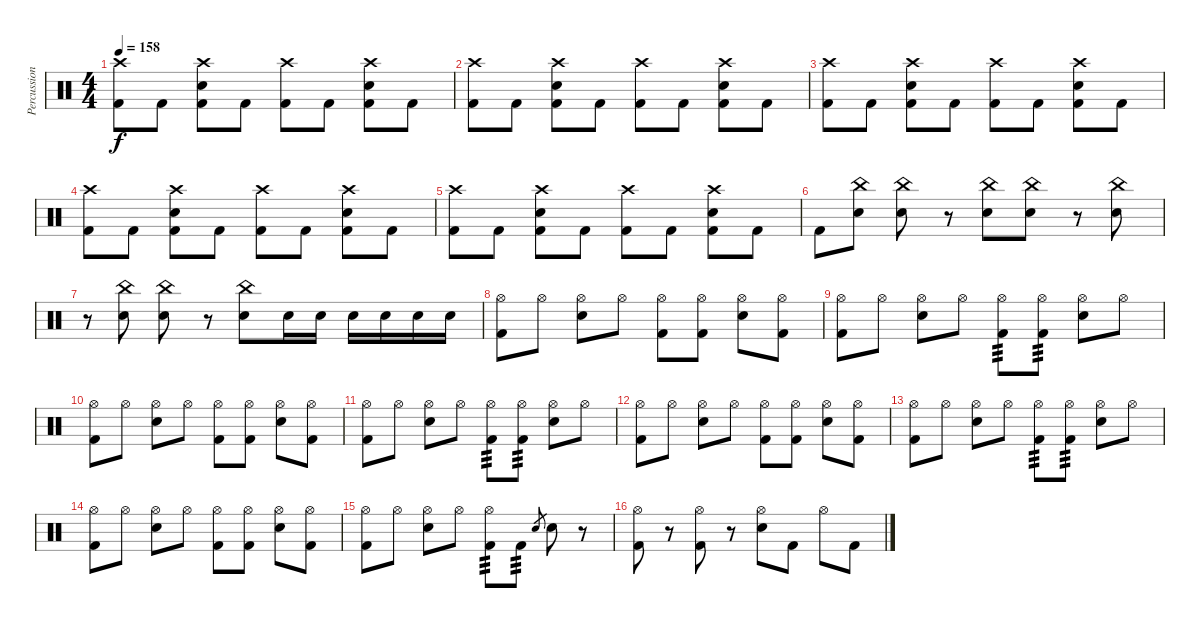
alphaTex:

\track ("Percussion" "Percussion") {instrument percussion}
\staff {score}
\articulation defaults
\ts (4 4)
\tempo 158
\clef neutral
\ks c
("Crash high (hit)" "Kick (hit) 2").8{dy f} "Kick (hit) 2".8 ("Crash high (hit)" "Electric Snare (hit)" "Kick (hit) 2").8 "Kick (hit) 2".8 ("Crash high (hit)" "Kick (hit) 2").8 "Kick (hit) 2".8 ("Crash high (hit)" "Electric Snare (hit)" "Kick (hit) 2").8 "Kick (hit) 2".8 |
("Crash high (hit)" "Kick (hit) 2").8 "Kick (hit) 2".8 ("Crash high (hit)" "Electric Snare (hit)" "Kick (hit) 2").8 "Kick (hit) 2".8 ("Crash high (hit)" "Kick (hit) 2").8 "Kick (hit) 2".8 ("Crash high (hit)" "Electric Snare (hit)" "Kick (hit) 2").8 "Kick (hit) 2".8 |
("Crash high (hit)" "Kick (hit) 2").8 "Kick (hit) 2".8 ("Crash high (hit)" "Electric Snare (hit)" "Kick (hit) 2").8 "Kick (hit) 2".8 ("Crash high (hit)" "Kick (hit) 2").8 "Kick (hit) 2".8 ("Crash high (hit)" "Electric Snare (hit)" "Kick (hit) 2").8 "Kick (hit) 2".8 |
("Crash high (hit)" "Kick (hit) 2").8 "Kick (hit) 2".8 ("Crash high (hit)" "Electric Snare (hit)" "Kick (hit) 2").8 "Kick (hit) 2".8 ("Crash high (hit)" "Kick (hit) 2").8 "Kick (hit) 2".8 ("Crash high (hit)" "Electric Snare (hit)" "Kick (hit) 2").8 "Kick (hit) 2".8 |
("Crash high (hit)" "Kick (hit) 2").8 "Kick (hit) 2".8 ("Crash high (hit)" "Electric Snare (hit)" "Kick (hit) 2").8 "Kick (hit) 2".8 ("Crash high (hit)" "Kick (hit) 2").8 "Kick (hit) 2".8 ("Crash high (hit)" "Electric Snare (hit)" "Kick (hit) 2").8 "Kick (hit) 2".8 |
"Kick (hit) 2".8 ("China (hit)" "Electric Snare (hit)").8 ("China (hit)" "Electric Snare (hit)").8 r.8 ("China (hit)" "Electric Snare (hit)").8 ("China (hit)" "Electric Snare (hit)").8 r.8 ("China (hit)" "Electric Snare (hit)").8 |
r.8 ("China (hit)" "Electric Snare (hit)").8 ("China (hit)" "Electric Snare (hit)").8 r.8 ("China (hit)" "Electric Snare (hit)").8 "Electric Snare (hit)".16 "Electric Snare (hit)".16 "Electric Snare (hit)".16 "Electric Snare (hit)".16 "Electric Snare (hit)".16 "Electric Snare (hit)".16 |
("Hi-Hat (open)" "Kick (hit) 2").8 "Hi-Hat (open)".8 ("Hi-Hat (open)" "Electric Snare (hit)").8 "Hi-Hat (open)".8 ("Hi-Hat (open)" "Kick (hit) 2").8 ("Hi-Hat (open)" "Kick (hit) 2").8 ("Hi-Hat (open)" "Electric Snare (hit)").8 ("Hi-Hat (open)" "Kick (hit) 2").8 |
("Hi-Hat (open)" "Kick (hit) 2").8 "Hi-Hat (open)".8 ("Hi-Hat (open)" "Electric Snare (hit)").8 "Hi-Hat (open)".8 ("Hi-Hat (open)" "Kick (hit) 2").8{tp 3} ("Hi-Hat (open)" "Kick (hit) 2").8{tp 3} ("Hi-Hat (open)" "Electric Snare (hit)").8 "Hi-Hat (open)".8 |
("Hi-Hat (open)" "Kick (hit) 2").8 "Hi-Hat (open)".8 ("Hi-Hat (open)" "Electric Snare (hit)").8 "Hi-Hat (open)".8 ("Hi-Hat (open)" "Kick (hit) 2").8 ("Hi-Hat (open)" "Kick (hit) 2").8 ("Hi-Hat (open)" "Electric Snare (hit)").8 ("Hi-Hat (open)" "Kick (hit) 2").8 |
("Hi-Hat (open)" "Kick (hit) 2").8 "Hi-Hat (open)".8 ("Hi-Hat (open)" "Electric Snare (hit)").8 "Hi-Hat (open)".8 ("Hi-Hat (open)" "Kick (hit) 2").8{tp 3} ("Hi-Hat (open)" "Kick (hit) 2").8{tp 3} ("Hi-Hat (open)" "Electric Snare (hit)").8 "Hi-Hat (open)".8 |
("Hi-Hat (open)" "Kick (hit) 2").8 "Hi-Hat (open)".8 ("Hi-Hat (open)" "Electric Snare (hit)").8 "Hi-Hat (open)".8 ("Hi-Hat (open)" "Kick (hit) 2").8 ("Hi-Hat (open)" "Kick (hit) 2").8 ("Hi-Hat (open)" "Electric Snare (hit)").8 ("Hi-Hat (open)" "Kick (hit) 2").8 |
("Hi-Hat (open)" "Kick (hit) 2").8 "Hi-Hat (open)".8 ("Hi-Hat (open)" "Electric Snare (hit)").8 "Hi-Hat (open)".8 ("Hi-Hat (open)" "Kick (hit) 2").8{tp 3} ("Hi-Hat (open)" "Kick (hit) 2").8{tp 3} ("Hi-Hat (open)" "Electric Snare (hit)").8 "Hi-Hat (open)".8 |
("Hi-Hat (open)" "Kick (hit) 2").8 "Hi-Hat (open)".8 ("Hi-Hat (open)" "Electric Snare (hit)").8 "Hi-Hat (open)".8 ("Hi-Hat (open)" "Kick (hit) 2").8 ("Hi-Hat (open)" "Kick (hit) 2").8 ("Hi-Hat (open)" "Electric Snare (hit)").8 ("Hi-Hat (open)" "Kick (hit) 2").8 |
("Hi-Hat (open)" "Kick (hit) 2").8 "Hi-Hat (open)".8 ("Hi-Hat (open)" "Electric Snare (hit)").8 "Hi-Hat (open)".8 ("Hi-Hat (open)" "Kick (hit) 2").8{tp 3} "Kick (hit) 2".8{tp 3} "Electric Snare (hit)".8{gr} "Electric Snare (hit)".8 r.8 |
("Hi-Hat (open)" "Kick (hit) 2").8 r.8 ("Hi-Hat (open)" "Kick (hit) 2").8 r.8 ("Hi-Hat (open)" "Electric Snare (hit)").8 "Kick (hit) 2".8 "Hi-Hat (open)".8 "Kick (hit) 2".8
